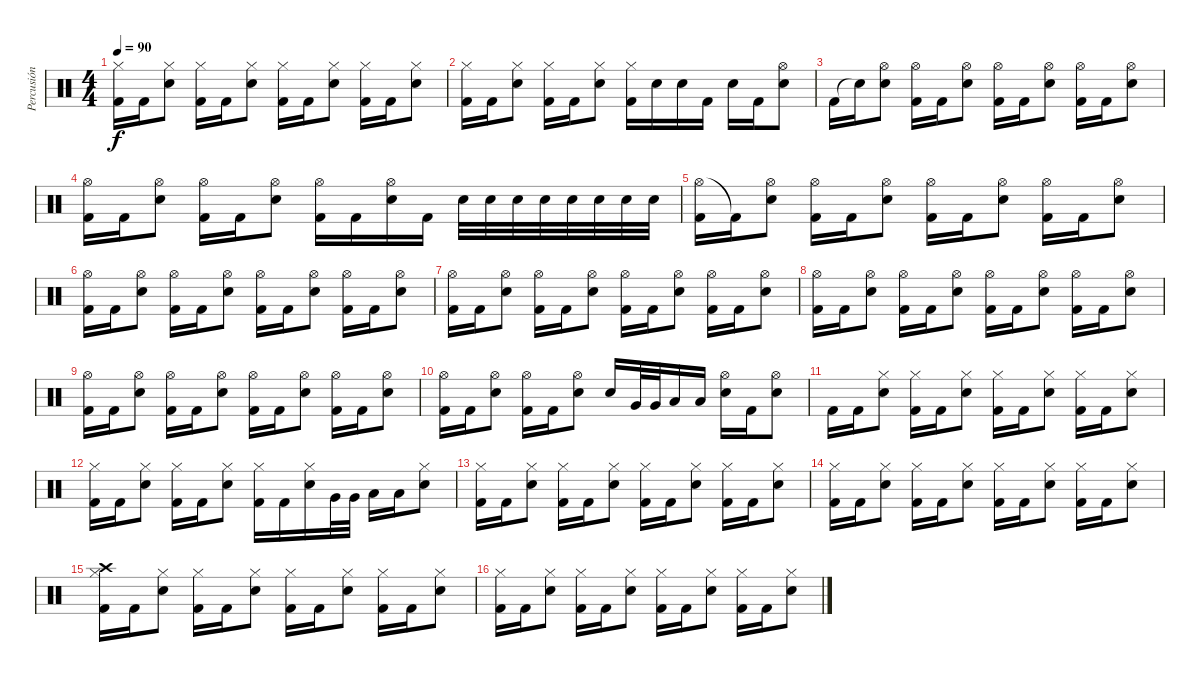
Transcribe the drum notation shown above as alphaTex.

\track ("Percusión" "Percusión") {instrument percussion}
\staff {score}
\articulation defaults
\ts (4 4)
\tempo 90
\clef neutral
\ks c
("Hi-Hat (closed)" "Kick (hit) 2").16{dy f} "Kick (hit) 2".16 ("Hi-Hat (closed)" "Snare (hit) 2").8 ("Hi-Hat (closed)" "Kick (hit) 2").16 "Kick (hit) 2".16 ("Hi-Hat (closed)" "Snare (hit) 2").8 ("Hi-Hat (closed)" "Kick (hit) 2").16 "Kick (hit) 2".16 ("Hi-Hat (closed)" "Snare (hit) 2").8 ("Hi-Hat (closed)" "Kick (hit) 2").16 "Kick (hit) 2".16 ("Hi-Hat (closed)" "Snare (hit) 2").8 |
("Hi-Hat (closed)" "Kick (hit) 2").16 "Kick (hit) 2".16 ("Hi-Hat (closed)" "Snare (hit) 2").8 ("Hi-Hat (closed)" "Kick (hit) 2").16 "Kick (hit) 2".16 ("Hi-Hat (closed)" "Snare (hit) 2").8 ("Hi-Hat (closed)" "Kick (hit) 2").16 "Snare (hit) 2".16 "Snare (hit) 2".16 "Kick (hit) 2".16 "Snare (hit) 2".16 "Kick (hit) 2".16 ("Hi-Hat (open)" "Snare (hit) 2").8 |
"Kick (hit) 2".16 "Snare (hit)"{t}.16 ("Hi-Hat (open)" "Snare (hit) 2").8 ("Hi-Hat (open)" "Kick (hit) 2").16 "Kick (hit) 2".16 ("Hi-Hat (open)" "Snare (hit) 2").8 ("Hi-Hat (open)" "Kick (hit) 2").16 "Kick (hit) 2".16 ("Hi-Hat (open)" "Snare (hit) 2").8 ("Hi-Hat (open)" "Kick (hit) 2").16 "Kick (hit) 2".16 ("Hi-Hat (open)" "Snare (hit) 2").8 |
("Hi-Hat (open)" "Kick (hit) 2").16 "Kick (hit) 2".16 ("Hi-Hat (open)" "Snare (hit) 2").8 ("Hi-Hat (open)" "Kick (hit) 2").16 "Kick (hit) 2".16 ("Hi-Hat (open)" "Snare (hit) 2").8 ("Hi-Hat (open)" "Kick (hit) 2").16 "Kick (hit) 2".16 ("Hi-Hat (open)" "Snare (hit) 2").16 "Kick (hit) 2".16 "Snare (hit) 2".32 "Snare (hit) 2".32 "Snare (hit) 2".32 "Snare (hit) 2".32 "Snare (hit) 2".32 "Snare (hit) 2".32 "Snare (hit) 2".32 "Snare (hit) 2".32 |
("Hi-Hat (open)" "Kick (hit) 2").16 "Kick (hit) 2"{t}.16 ("Hi-Hat (open)" "Snare (hit) 2").8 ("Hi-Hat (open)" "Kick (hit) 2").16 "Kick (hit) 2".16 ("Hi-Hat (open)" "Snare (hit) 2").8 ("Hi-Hat (open)" "Kick (hit) 2").16 "Kick (hit) 2".16 ("Hi-Hat (open)" "Snare (hit) 2").8 ("Hi-Hat (open)" "Kick (hit) 2").16 "Kick (hit) 2".16 ("Hi-Hat (open)" "Snare (hit) 2").8 |
("Hi-Hat (open)" "Kick (hit) 2").16 "Kick (hit) 2".16 ("Hi-Hat (open)" "Snare (hit) 2").8 ("Hi-Hat (open)" "Kick (hit) 2").16 "Kick (hit) 2".16 ("Hi-Hat (open)" "Snare (hit) 2").8 ("Hi-Hat (open)" "Kick (hit) 2").16 "Kick (hit) 2".16 ("Hi-Hat (open)" "Snare (hit) 2").8 ("Hi-Hat (open)" "Kick (hit) 2").16 "Kick (hit) 2".16 ("Hi-Hat (open)" "Snare (hit) 2").8 |
("Hi-Hat (open)" "Kick (hit) 2").16 "Kick (hit) 2".16 ("Hi-Hat (open)" "Snare (hit) 2").8 ("Hi-Hat (open)" "Kick (hit) 2").16 "Kick (hit) 2".16 ("Hi-Hat (open)" "Snare (hit) 2").8 ("Hi-Hat (open)" "Kick (hit) 2").16 "Kick (hit) 2".16 ("Hi-Hat (open)" "Snare (hit) 2").8 ("Hi-Hat (open)" "Kick (hit) 2").16 "Kick (hit) 2".16 ("Hi-Hat (open)" "Snare (hit) 2").8 |
("Hi-Hat (open)" "Kick (hit) 2").16 "Kick (hit) 2".16 ("Hi-Hat (open)" "Snare (hit) 2").8 ("Hi-Hat (open)" "Kick (hit) 2").16 "Kick (hit) 2".16 ("Hi-Hat (open)" "Snare (hit) 2").8 ("Hi-Hat (open)" "Kick (hit) 2").16 "Kick (hit) 2".16 ("Hi-Hat (open)" "Snare (hit) 2").8 ("Hi-Hat (open)" "Kick (hit) 2").16 "Kick (hit) 2".16 ("Hi-Hat (open)" "Snare (hit) 2").8 |
("Hi-Hat (open)" "Kick (hit) 2").16 "Kick (hit) 2".16 ("Hi-Hat (open)" "Snare (hit) 2").8 ("Hi-Hat (open)" "Kick (hit) 2").16 "Kick (hit) 2".16 ("Hi-Hat (open)" "Snare (hit) 2").8 ("Hi-Hat (open)" "Kick (hit) 2").16 "Kick (hit) 2".16 ("Hi-Hat (open)" "Snare (hit) 2").8 ("Hi-Hat (open)" "Kick (hit) 2").16 "Kick (hit) 2".16 ("Hi-Hat (open)" "Snare (hit) 2").8 |
("Hi-Hat (open)" "Kick (hit) 2").16 "Kick (hit) 2".16 ("Hi-Hat (open)" "Snare (hit) 2").8 ("Hi-Hat (open)" "Kick (hit) 2").16 "Kick (hit) 2".16 ("Hi-Hat (open)" "Snare (hit) 2").8 "Snare (hit) 2".16 "Very Low Tom (hit)".32 "Very Low Tom (hit)".32 "Low Tom (hit)".16 "Low Tom (hit)".16 ("Hi-Hat (open)" "Snare (hit) 2").16 "Kick (hit) 2".16 ("Hi-Hat (open)" "Snare (hit) 2").8 |
"Kick (hit) 2".16 "Kick (hit) 2".16 ("Hi-Hat (closed)" "Snare (hit) 2").8 ("Hi-Hat (closed)" "Kick (hit) 2").16 "Kick (hit) 2".16 ("Hi-Hat (closed)" "Snare (hit) 2").8 ("Hi-Hat (closed)" "Kick (hit) 2").16 "Kick (hit) 2".16 ("Hi-Hat (closed)" "Snare (hit) 2").8 ("Hi-Hat (closed)" "Kick (hit) 2").16 "Kick (hit) 2".16 ("Hi-Hat (closed)" "Snare (hit) 2").8 |
("Hi-Hat (closed)" "Kick (hit) 2").16 "Kick (hit) 2".16 ("Hi-Hat (closed)" "Snare (hit) 2").8 ("Hi-Hat (closed)" "Kick (hit) 2").16 "Kick (hit) 2".16 ("Hi-Hat (closed)" "Snare (hit) 2").8 ("Hi-Hat (closed)" "Kick (hit) 2").16 "Kick (hit) 2".16 ("Hi-Hat (closed)" "Snare (hit) 2").16 "Very Low Tom (hit)".32 "Very Low Tom (hit)".32 "Low Tom (hit)".16 "Low Tom (hit)".16 ("Hi-Hat (closed)" "Snare (hit) 2").8 |
("Hi-Hat (closed)" "Kick (hit) 2").16 "Kick (hit) 2".16 ("Hi-Hat (closed)" "Snare (hit) 2").8 ("Hi-Hat (closed)" "Kick (hit) 2").16 "Kick (hit) 2".16 ("Hi-Hat (closed)" "Snare (hit) 2").8 ("Hi-Hat (closed)" "Kick (hit) 2").16 "Kick (hit) 2".16 ("Hi-Hat (closed)" "Snare (hit) 2").8 ("Hi-Hat (closed)" "Kick (hit) 2").16 "Kick (hit) 2".16 ("Hi-Hat (closed)" "Snare (hit) 2").8 |
("Hi-Hat (closed)" "Kick (hit) 2").16 "Kick (hit) 2".16 ("Hi-Hat (closed)" "Snare (hit) 2").8 ("Hi-Hat (closed)" "Kick (hit) 2").16 "Kick (hit) 2".16 ("Hi-Hat (closed)" "Snare (hit) 2").8 ("Hi-Hat (closed)" "Kick (hit) 2").16 "Kick (hit) 2".16 ("Hi-Hat (closed)" "Snare (hit) 2").8 ("Hi-Hat (closed)" "Kick (hit) 2").16 "Kick (hit) 2".16 ("Hi-Hat (closed)" "Snare (hit) 2").8 |
("Crash high (hit)" "Hi-Hat (closed)" "Kick (hit) 2").16 "Kick (hit) 2".16 ("Hi-Hat (closed)" "Snare (hit) 2").8 ("Hi-Hat (closed)" "Kick (hit) 2").16 "Kick (hit) 2".16 ("Hi-Hat (closed)" "Snare (hit) 2").8 ("Hi-Hat (closed)" "Kick (hit) 2").16 "Kick (hit) 2".16 ("Hi-Hat (closed)" "Snare (hit) 2").8 ("Hi-Hat (closed)" "Kick (hit) 2").16 "Kick (hit) 2".16 ("Hi-Hat (closed)" "Snare (hit) 2").8 |
("Hi-Hat (closed)" "Kick (hit) 2").16 "Kick (hit) 2".16 ("Hi-Hat (closed)" "Snare (hit) 2").8 ("Hi-Hat (closed)" "Kick (hit) 2").16 "Kick (hit) 2".16 ("Hi-Hat (closed)" "Snare (hit) 2").8 ("Hi-Hat (closed)" "Kick (hit) 2").16 "Kick (hit) 2".16 ("Hi-Hat (closed)" "Snare (hit) 2").8 ("Hi-Hat (closed)" "Kick (hit) 2").16 "Kick (hit) 2".16 ("Hi-Hat (closed)" "Snare (hit) 2").8
